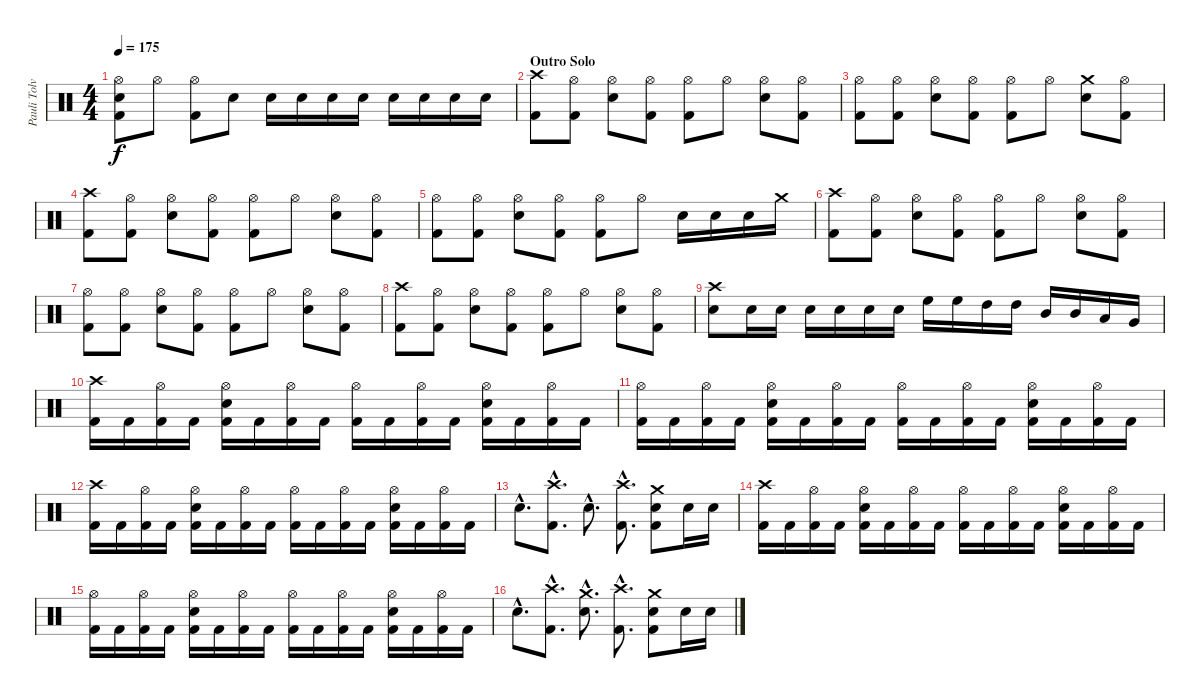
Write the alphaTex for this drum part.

\track ("Pauli Tolvanen-Drums" "Pauli Tolv") {instrument percussion}
\staff {score}
\articulation defaults
\ts (4 4)
\tempo 175
\clef neutral
\ks c
("Hi-Hat (open)" "Snare (hit) 2" "Kick (hit) 2").8{dy f} "Hi-Hat (open)".8 ("Hi-Hat (open)" "Kick (hit) 2").8 "Snare (hit) 2".8 "Snare (hit) 2".16 "Snare (hit) 2".16 "Snare (hit) 2".16 "Snare (hit) 2".16 "Snare (hit) 2".16 "Snare (hit) 2".16 "Snare (hit) 2".16 "Snare (hit) 2".16 |
\section ("" "Outro Solo")
("Crash high (hit)" "Kick (hit) 2").8 ("Hi-Hat (open)" "Kick (hit) 2").8 ("Hi-Hat (open)" "Snare (hit) 2").8 ("Hi-Hat (open)" "Kick (hit) 2").8 ("Hi-Hat (open)" "Kick (hit) 2").8 "Hi-Hat (open)".8 ("Hi-Hat (open)" "Snare (hit) 2").8 ("Hi-Hat (open)" "Kick (hit) 2").8 |
("Hi-Hat (open)" "Kick (hit) 2").8 ("Hi-Hat (open)" "Kick (hit) 2").8 ("Hi-Hat (open)" "Snare (hit) 2").8 ("Hi-Hat (open)" "Kick (hit) 2").8 ("Hi-Hat (open)" "Kick (hit) 2").8 "Hi-Hat (open)".8 ("Crash medium (hit)" "Snare (hit) 2").8 ("Hi-Hat (open)" "Kick (hit) 2").8 |
("Crash high (hit)" "Kick (hit) 2").8 ("Hi-Hat (open)" "Kick (hit) 2").8 ("Hi-Hat (open)" "Snare (hit) 2").8 ("Hi-Hat (open)" "Kick (hit) 2").8 ("Hi-Hat (open)" "Kick (hit) 2").8 "Hi-Hat (open)".8 ("Hi-Hat (open)" "Snare (hit) 2").8 ("Hi-Hat (open)" "Kick (hit) 2").8 |
("Hi-Hat (open)" "Kick (hit) 2").8 ("Hi-Hat (open)" "Kick (hit) 2").8 ("Hi-Hat (open)" "Snare (hit) 2").8 ("Hi-Hat (open)" "Kick (hit) 2").8 ("Hi-Hat (open)" "Kick (hit) 2").8 "Hi-Hat (open)".8 "Snare (hit) 2".16 "Snare (hit) 2".16 "Snare (hit) 2".16 "Crash medium (hit)".16 |
("Crash high (hit)" "Kick (hit) 2").8 ("Hi-Hat (open)" "Kick (hit) 2").8 ("Hi-Hat (open)" "Snare (hit) 2").8 ("Hi-Hat (open)" "Kick (hit) 2").8 ("Hi-Hat (open)" "Kick (hit) 2").8 "Hi-Hat (open)".8 ("Hi-Hat (open)" "Snare (hit) 2").8 ("Hi-Hat (open)" "Kick (hit) 2").8 |
("Hi-Hat (open)" "Kick (hit) 2").8 ("Hi-Hat (open)" "Kick (hit) 2").8 ("Hi-Hat (open)" "Snare (hit) 2").8 ("Hi-Hat (open)" "Kick (hit) 2").8 ("Hi-Hat (open)" "Kick (hit) 2").8 "Hi-Hat (open)".8 ("Hi-Hat (open)" "Snare (hit) 2").8 ("Hi-Hat (open)" "Kick (hit) 2").8 |
("Crash high (hit)" "Kick (hit) 2").8 ("Hi-Hat (open)" "Kick (hit) 2").8 ("Hi-Hat (open)" "Snare (hit) 2").8 ("Hi-Hat (open)" "Kick (hit) 2").8 ("Hi-Hat (open)" "Kick (hit) 2").8 "Hi-Hat (open)".8 ("Hi-Hat (open)" "Snare (hit) 2").8 ("Hi-Hat (open)" "Kick (hit) 2").8 |
("Crash high (hit)" "Snare (hit) 2").8 "Snare (hit) 2".16 "Snare (hit) 2".16 "Snare (hit) 2".16 "Snare (hit) 2".16 "Snare (hit) 2".16 "Snare (hit) 2".16 "High Floor Tom (hit)".16 "High Floor Tom (hit)".16 "High Tom (hit)".16 "High Tom (hit)".16 "Mid Tom (hit)".16 "Mid Tom (hit)".16 "Low Tom (hit)".16 "Very Low Tom (hit)".16 |
("Crash high (hit)" "Kick (hit) 2").16 "Kick (hit) 2".16 ("Hi-Hat (open)" "Kick (hit) 2").16 "Kick (hit) 2".16 ("Hi-Hat (open)" "Snare (hit) 2" "Kick (hit) 2").16 "Kick (hit) 2".16 ("Hi-Hat (open)" "Kick (hit) 2").16 "Kick (hit) 2".16 ("Hi-Hat (open)" "Kick (hit) 2").16 "Kick (hit) 2".16 ("Hi-Hat (open)" "Kick (hit) 2").16 "Kick (hit) 2".16 ("Hi-Hat (open)" "Snare (hit) 2" "Kick (hit) 2").16 "Kick (hit) 2".16 ("Hi-Hat (open)" "Kick (hit) 2").16 "Kick (hit) 2".16 |
("Hi-Hat (open)" "Kick (hit) 2").16 "Kick (hit) 2".16 ("Hi-Hat (open)" "Kick (hit) 2").16 "Kick (hit) 2".16 ("Hi-Hat (open)" "Snare (hit) 2" "Kick (hit) 2").16 "Kick (hit) 2".16 ("Hi-Hat (open)" "Kick (hit) 2").16 "Kick (hit) 2".16 ("Hi-Hat (open)" "Kick (hit) 2").16 "Kick (hit) 2".16 ("Hi-Hat (open)" "Kick (hit) 2").16 "Kick (hit) 2".16 ("Hi-Hat (open)" "Snare (hit) 2" "Kick (hit) 2").16 "Kick (hit) 2".16 ("Hi-Hat (open)" "Kick (hit) 2").16 "Kick (hit) 2".16 |
("Crash high (hit)" "Kick (hit) 2").16 "Kick (hit) 2".16 ("Hi-Hat (open)" "Kick (hit) 2").16 "Kick (hit) 2".16 ("Hi-Hat (open)" "Snare (hit) 2" "Kick (hit) 2").16 "Kick (hit) 2".16 ("Hi-Hat (open)" "Kick (hit) 2").16 "Kick (hit) 2".16 ("Hi-Hat (open)" "Kick (hit) 2").16 "Kick (hit) 2".16 ("Hi-Hat (open)" "Kick (hit) 2").16 "Kick (hit) 2".16 ("Hi-Hat (open)" "Snare (hit) 2" "Kick (hit) 2").16 "Kick (hit) 2".16 ("Hi-Hat (open)" "Kick (hit) 2").16 "Kick (hit) 2".16 |
"Snare (hit) 2"{hac}.8{d} ("Crash high (hit)"{hac} "Kick (hit) 2"{hac}).8{d} "Snare (hit) 2"{hac}.8{d} ("Crash high (hit)"{hac} "Kick (hit) 2"{hac}).8{d} ("Crash medium (hit)" "Snare (hit) 2" "Kick (hit) 2").8 "Snare (hit) 2".16 "Snare (hit) 2".16 |
("Crash high (hit)" "Kick (hit) 2").16 "Kick (hit) 2".16 ("Hi-Hat (open)" "Kick (hit) 2").16 "Kick (hit) 2".16 ("Hi-Hat (open)" "Snare (hit) 2" "Kick (hit) 2").16 "Kick (hit) 2".16 ("Hi-Hat (open)" "Kick (hit) 2").16 "Kick (hit) 2".16 ("Hi-Hat (open)" "Kick (hit) 2").16 "Kick (hit) 2".16 ("Hi-Hat (open)" "Kick (hit) 2").16 "Kick (hit) 2".16 ("Hi-Hat (open)" "Snare (hit) 2" "Kick (hit) 2").16 "Kick (hit) 2".16 ("Hi-Hat (open)" "Kick (hit) 2").16 "Kick (hit) 2".16 |
("Hi-Hat (open)" "Kick (hit) 2").16 "Kick (hit) 2".16 ("Hi-Hat (open)" "Kick (hit) 2").16 "Kick (hit) 2".16 ("Hi-Hat (open)" "Snare (hit) 2" "Kick (hit) 2").16 "Kick (hit) 2".16 ("Hi-Hat (open)" "Kick (hit) 2").16 "Kick (hit) 2".16 ("Hi-Hat (open)" "Kick (hit) 2").16 "Kick (hit) 2".16 ("Hi-Hat (open)" "Kick (hit) 2").16 "Kick (hit) 2".16 ("Hi-Hat (open)" "Snare (hit) 2" "Kick (hit) 2").16 "Kick (hit) 2".16 ("Hi-Hat (open)" "Kick (hit) 2").16 "Kick (hit) 2".16 |
"Snare (hit) 2"{hac}.8{d} ("Crash high (hit)"{hac} "Kick (hit) 2"{hac}).8{d} ("Crash medium (hit)"{hac} "Snare (hit) 2"{hac}).8{d} ("Crash high (hit)"{hac} "Kick (hit) 2"{hac}).8{d} ("Crash medium (hit)" "Snare (hit) 2" "Kick (hit) 2").8 "Snare (hit) 2".16 "Snare (hit) 2".16
